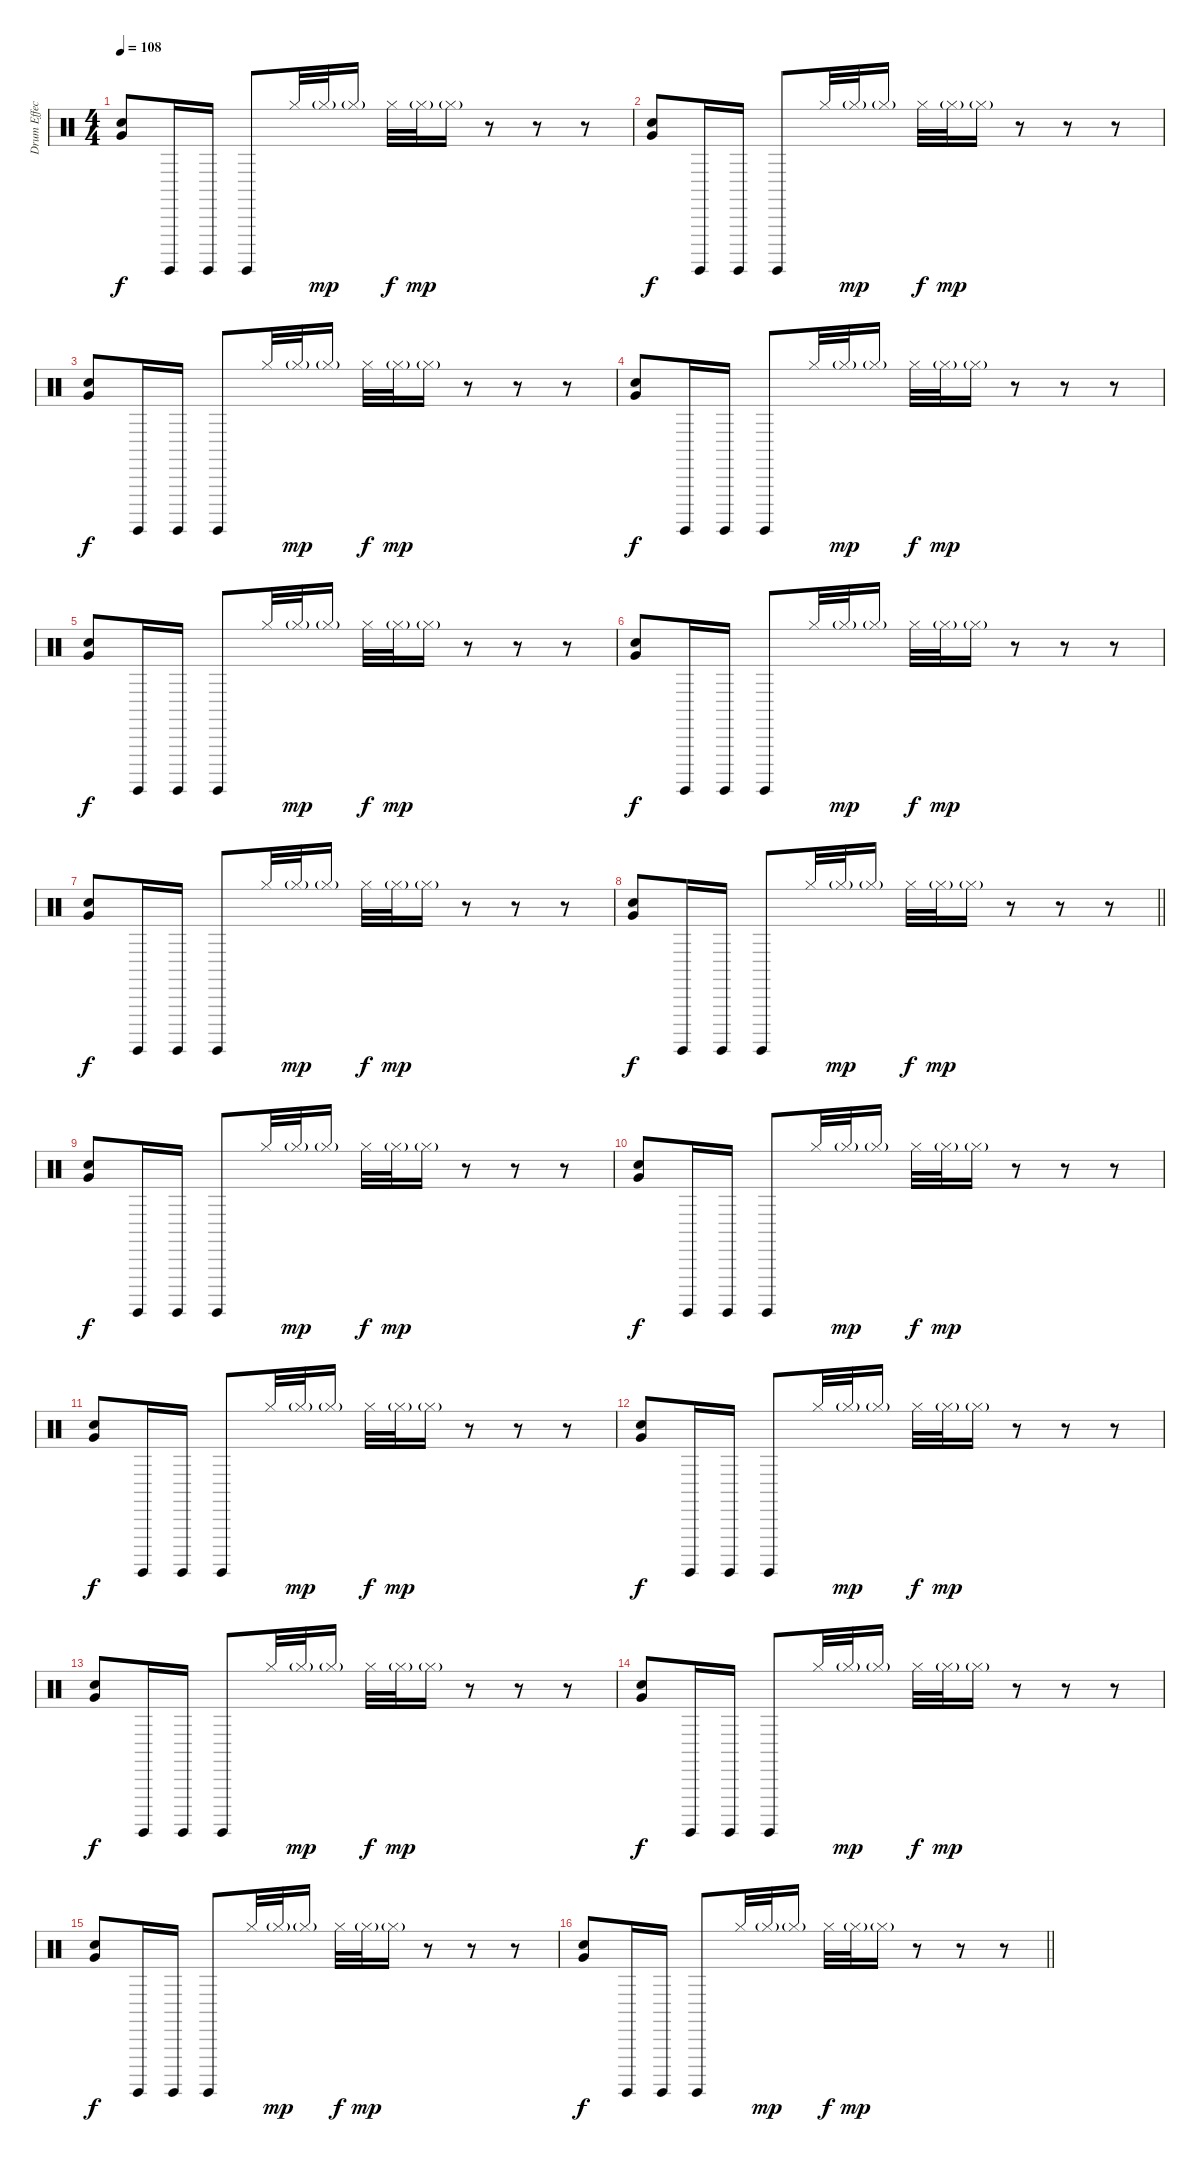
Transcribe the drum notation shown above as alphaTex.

\track ("Drum Effects" "Drum Effec") {instrument percussion}
\staff {score}
\articulation defaults
\ts (4 4)
\section ("" "")
\tempo 108
\clef neutral
\ks c
("Hand Clap (hit)" "Very Low Tom (hit)").8{dy f} "Surdo (hit)".16 "Surdo (hit)".16 "Surdo (hit)".8 "Hi-Hat (closed)".32 "Hi-Hat (closed)"{g}.32{dy mp} "Hi-Hat (closed)"{g}.16 "Hi-Hat (closed)".32{dy f} "Hi-Hat (closed)"{g}.32{dy mp} "Hi-Hat (closed)"{g}.16 r.8 r.8 r.8 |
("Hand Clap (hit)" "Very Low Tom (hit)").8{dy f} "Surdo (hit)".16 "Surdo (hit)".16 "Surdo (hit)".8 "Hi-Hat (closed)".32 "Hi-Hat (closed)"{g}.32{dy mp} "Hi-Hat (closed)"{g}.16 "Hi-Hat (closed)".32{dy f} "Hi-Hat (closed)"{g}.32{dy mp} "Hi-Hat (closed)"{g}.16 r.8 r.8 r.8 |
("Hand Clap (hit)" "Very Low Tom (hit)").8{dy f} "Surdo (hit)".16 "Surdo (hit)".16 "Surdo (hit)".8 "Hi-Hat (closed)".32 "Hi-Hat (closed)"{g}.32{dy mp} "Hi-Hat (closed)"{g}.16 "Hi-Hat (closed)".32{dy f} "Hi-Hat (closed)"{g}.32{dy mp} "Hi-Hat (closed)"{g}.16 r.8 r.8 r.8 |
("Hand Clap (hit)" "Very Low Tom (hit)").8{dy f} "Surdo (hit)".16 "Surdo (hit)".16 "Surdo (hit)".8 "Hi-Hat (closed)".32 "Hi-Hat (closed)"{g}.32{dy mp} "Hi-Hat (closed)"{g}.16 "Hi-Hat (closed)".32{dy f} "Hi-Hat (closed)"{g}.32{dy mp} "Hi-Hat (closed)"{g}.16 r.8 r.8 r.8 |
("Hand Clap (hit)" "Very Low Tom (hit)").8{dy f} "Surdo (hit)".16 "Surdo (hit)".16 "Surdo (hit)".8 "Hi-Hat (closed)".32 "Hi-Hat (closed)"{g}.32{dy mp} "Hi-Hat (closed)"{g}.16 "Hi-Hat (closed)".32{dy f} "Hi-Hat (closed)"{g}.32{dy mp} "Hi-Hat (closed)"{g}.16 r.8 r.8 r.8 |
("Hand Clap (hit)" "Very Low Tom (hit)").8{dy f} "Surdo (hit)".16 "Surdo (hit)".16 "Surdo (hit)".8 "Hi-Hat (closed)".32 "Hi-Hat (closed)"{g}.32{dy mp} "Hi-Hat (closed)"{g}.16 "Hi-Hat (closed)".32{dy f} "Hi-Hat (closed)"{g}.32{dy mp} "Hi-Hat (closed)"{g}.16 r.8 r.8 r.8 |
("Hand Clap (hit)" "Very Low Tom (hit)").8{dy f} "Surdo (hit)".16 "Surdo (hit)".16 "Surdo (hit)".8 "Hi-Hat (closed)".32 "Hi-Hat (closed)"{g}.32{dy mp} "Hi-Hat (closed)"{g}.16 "Hi-Hat (closed)".32{dy f} "Hi-Hat (closed)"{g}.32{dy mp} "Hi-Hat (closed)"{g}.16 r.8 r.8 r.8 |
\barLineRight lightlight
("Hand Clap (hit)" "Very Low Tom (hit)").8{dy f} "Surdo (hit)".16 "Surdo (hit)".16 "Surdo (hit)".8 "Hi-Hat (closed)".32 "Hi-Hat (closed)"{g}.32{dy mp} "Hi-Hat (closed)"{g}.16 "Hi-Hat (closed)".32{dy f} "Hi-Hat (closed)"{g}.32{dy mp} "Hi-Hat (closed)"{g}.16 r.8 r.8 r.8 |
\section ("" "")
("Hand Clap (hit)" "Very Low Tom (hit)").8{dy f} "Surdo (hit)".16 "Surdo (hit)".16 "Surdo (hit)".8 "Hi-Hat (closed)".32 "Hi-Hat (closed)"{g}.32{dy mp} "Hi-Hat (closed)"{g}.16 "Hi-Hat (closed)".32{dy f} "Hi-Hat (closed)"{g}.32{dy mp} "Hi-Hat (closed)"{g}.16 r.8 r.8 r.8 |
("Hand Clap (hit)" "Very Low Tom (hit)").8{dy f} "Surdo (hit)".16 "Surdo (hit)".16 "Surdo (hit)".8 "Hi-Hat (closed)".32 "Hi-Hat (closed)"{g}.32{dy mp} "Hi-Hat (closed)"{g}.16 "Hi-Hat (closed)".32{dy f} "Hi-Hat (closed)"{g}.32{dy mp} "Hi-Hat (closed)"{g}.16 r.8 r.8 r.8 |
("Hand Clap (hit)" "Very Low Tom (hit)").8{dy f} "Surdo (hit)".16 "Surdo (hit)".16 "Surdo (hit)".8 "Hi-Hat (closed)".32 "Hi-Hat (closed)"{g}.32{dy mp} "Hi-Hat (closed)"{g}.16 "Hi-Hat (closed)".32{dy f} "Hi-Hat (closed)"{g}.32{dy mp} "Hi-Hat (closed)"{g}.16 r.8 r.8 r.8 |
("Hand Clap (hit)" "Very Low Tom (hit)").8{dy f} "Surdo (hit)".16 "Surdo (hit)".16 "Surdo (hit)".8 "Hi-Hat (closed)".32 "Hi-Hat (closed)"{g}.32{dy mp} "Hi-Hat (closed)"{g}.16 "Hi-Hat (closed)".32{dy f} "Hi-Hat (closed)"{g}.32{dy mp} "Hi-Hat (closed)"{g}.16 r.8 r.8 r.8 |
("Hand Clap (hit)" "Very Low Tom (hit)").8{dy f} "Surdo (hit)".16 "Surdo (hit)".16 "Surdo (hit)".8 "Hi-Hat (closed)".32 "Hi-Hat (closed)"{g}.32{dy mp} "Hi-Hat (closed)"{g}.16 "Hi-Hat (closed)".32{dy f} "Hi-Hat (closed)"{g}.32{dy mp} "Hi-Hat (closed)"{g}.16 r.8 r.8 r.8 |
("Hand Clap (hit)" "Very Low Tom (hit)").8{dy f} "Surdo (hit)".16 "Surdo (hit)".16 "Surdo (hit)".8 "Hi-Hat (closed)".32 "Hi-Hat (closed)"{g}.32{dy mp} "Hi-Hat (closed)"{g}.16 "Hi-Hat (closed)".32{dy f} "Hi-Hat (closed)"{g}.32{dy mp} "Hi-Hat (closed)"{g}.16 r.8 r.8 r.8 |
("Hand Clap (hit)" "Very Low Tom (hit)").8{dy f} "Surdo (hit)".16 "Surdo (hit)".16 "Surdo (hit)".8 "Hi-Hat (closed)".32 "Hi-Hat (closed)"{g}.32{dy mp} "Hi-Hat (closed)"{g}.16 "Hi-Hat (closed)".32{dy f} "Hi-Hat (closed)"{g}.32{dy mp} "Hi-Hat (closed)"{g}.16 r.8 r.8 r.8 |
\barLineRight lightlight
("Hand Clap (hit)" "Very Low Tom (hit)").8{dy f} "Surdo (hit)".16 "Surdo (hit)".16 "Surdo (hit)".8 "Hi-Hat (closed)".32 "Hi-Hat (closed)"{g}.32{dy mp} "Hi-Hat (closed)"{g}.16 "Hi-Hat (closed)".32{dy f} "Hi-Hat (closed)"{g}.32{dy mp} "Hi-Hat (closed)"{g}.16 r.8 r.8 r.8
